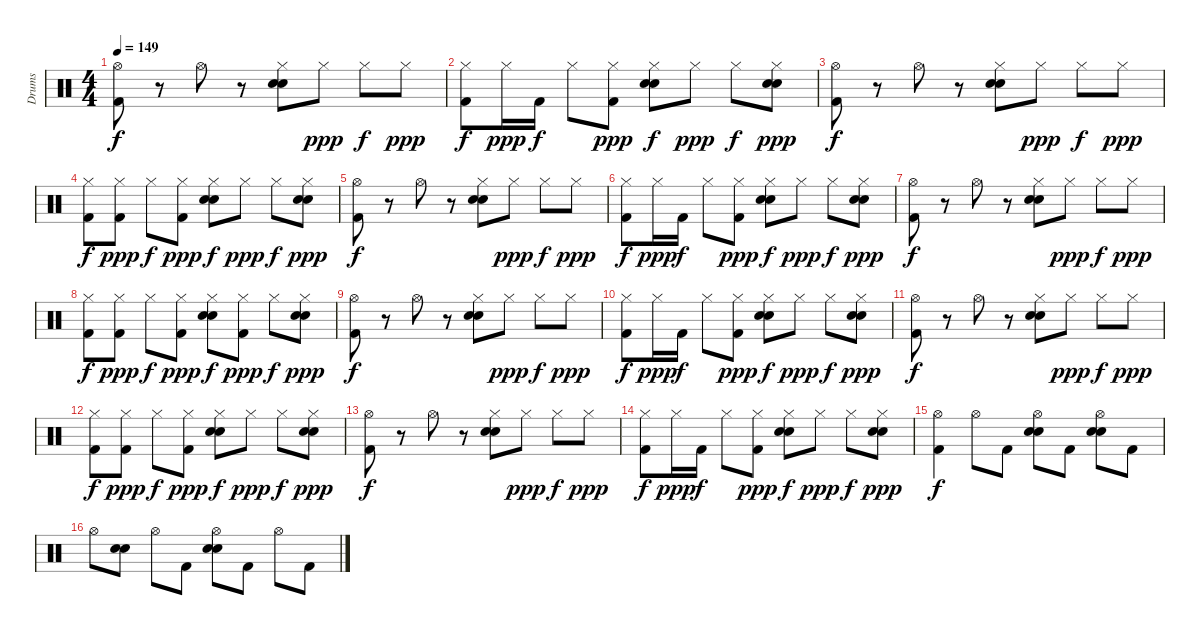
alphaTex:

\track ("Drums" "Drums") {instrument percussion}
\staff {score}
\articulation defaults
\ts (4 4)
\tempo 149
\clef neutral
\ks c
("Kick (hit) 2" "Hi-Hat (open)").8{dy f} r.8 "Hi-Hat (open)".8 r.8 ("Electric Snare (hit)" "Snare (hit) 2" "Hi-Hat (closed)").8 "Hi-Hat (closed)".8{dy ppp} "Hi-Hat (closed)".8{dy f} "Hi-Hat (closed)".8{dy ppp} |
("Kick (hit) 2" "Hi-Hat (closed)").8{dy f} "Hi-Hat (closed)".16{dy ppp} "Kick (hit) 2".16{dy f} "Hi-Hat (closed)".8 ("Kick (hit) 2" "Hi-Hat (closed)").8{dy ppp} ("Electric Snare (hit)" "Snare (hit) 2" "Hi-Hat (closed)").8{dy f} "Hi-Hat (closed)".8{dy ppp} "Hi-Hat (closed)".8{dy f} ("Electric Snare (hit)" "Snare (hit) 2" "Hi-Hat (closed)").8{dy ppp} |
("Kick (hit) 2" "Hi-Hat (open)").8{dy f} r.8 "Hi-Hat (open)".8 r.8 ("Electric Snare (hit)" "Snare (hit) 2" "Hi-Hat (closed)").8 "Hi-Hat (closed)".8{dy ppp} "Hi-Hat (closed)".8{dy f} "Hi-Hat (closed)".8{dy ppp} |
("Kick (hit) 2" "Hi-Hat (closed)").8{dy f} ("Kick (hit) 2" "Hi-Hat (closed)").8{dy ppp} "Hi-Hat (closed)".8{dy f} ("Kick (hit) 2" "Hi-Hat (closed)").8{dy ppp} ("Electric Snare (hit)" "Snare (hit) 2" "Hi-Hat (closed)").8{dy f} "Hi-Hat (closed)".8{dy ppp} "Hi-Hat (closed)".8{dy f} ("Electric Snare (hit)" "Snare (hit) 2" "Hi-Hat (closed)").8{dy ppp} |
("Kick (hit) 2" "Hi-Hat (open)").8{dy f} r.8 "Hi-Hat (open)".8 r.8 ("Electric Snare (hit)" "Snare (hit) 2" "Hi-Hat (closed)").8 "Hi-Hat (closed)".8{dy ppp} "Hi-Hat (closed)".8{dy f} "Hi-Hat (closed)".8{dy ppp} |
("Kick (hit) 2" "Hi-Hat (closed)").8{dy f} "Hi-Hat (closed)".16{dy ppp} "Kick (hit) 2".16{dy f} "Hi-Hat (closed)".8 ("Kick (hit) 2" "Hi-Hat (closed)").8{dy ppp} ("Electric Snare (hit)" "Snare (hit) 2" "Hi-Hat (closed)").8{dy f} "Hi-Hat (closed)".8{dy ppp} "Hi-Hat (closed)".8{dy f} ("Electric Snare (hit)" "Snare (hit) 2" "Hi-Hat (closed)").8{dy ppp} |
("Kick (hit) 2" "Hi-Hat (open)").8{dy f} r.8 "Hi-Hat (open)".8 r.8 ("Electric Snare (hit)" "Snare (hit) 2" "Hi-Hat (closed)").8 "Hi-Hat (closed)".8{dy ppp} "Hi-Hat (closed)".8{dy f} "Hi-Hat (closed)".8{dy ppp} |
("Kick (hit) 2" "Hi-Hat (closed)").8{dy f} ("Kick (hit) 2" "Hi-Hat (closed)").8{dy ppp} "Hi-Hat (closed)".8{dy f} ("Kick (hit) 2" "Hi-Hat (closed)").8{dy ppp} ("Electric Snare (hit)" "Snare (hit) 2" "Hi-Hat (closed)").8{dy f} ("Kick (hit) 2" "Hi-Hat (closed)").8{dy ppp} "Hi-Hat (closed)".8{dy f} ("Electric Snare (hit)" "Snare (hit) 2" "Hi-Hat (closed)").8{dy ppp} |
("Kick (hit) 2" "Hi-Hat (open)").8{dy f} r.8 "Hi-Hat (open)".8 r.8 ("Electric Snare (hit)" "Snare (hit) 2" "Hi-Hat (closed)").8 "Hi-Hat (closed)".8{dy ppp} "Hi-Hat (closed)".8{dy f} "Hi-Hat (closed)".8{dy ppp} |
("Kick (hit) 2" "Hi-Hat (closed)").8{dy f} "Hi-Hat (closed)".16{dy ppp} "Kick (hit) 2".16{dy f} "Hi-Hat (closed)".8 ("Kick (hit) 2" "Hi-Hat (closed)").8{dy ppp} ("Electric Snare (hit)" "Snare (hit) 2" "Hi-Hat (closed)").8{dy f} "Hi-Hat (closed)".8{dy ppp} "Hi-Hat (closed)".8{dy f} ("Electric Snare (hit)" "Snare (hit) 2" "Hi-Hat (closed)").8{dy ppp} |
("Kick (hit) 2" "Hi-Hat (open)").8{dy f} r.8 "Hi-Hat (open)".8 r.8 ("Electric Snare (hit)" "Snare (hit) 2" "Hi-Hat (closed)").8 "Hi-Hat (closed)".8{dy ppp} "Hi-Hat (closed)".8{dy f} "Hi-Hat (closed)".8{dy ppp} |
("Kick (hit) 2" "Hi-Hat (closed)").8{dy f} ("Kick (hit) 2" "Hi-Hat (closed)").8{dy ppp} "Hi-Hat (closed)".8{dy f} ("Kick (hit) 2" "Hi-Hat (closed)").8{dy ppp} ("Electric Snare (hit)" "Snare (hit) 2" "Hi-Hat (closed)").8{dy f} "Hi-Hat (closed)".8{dy ppp} "Hi-Hat (closed)".8{dy f} ("Electric Snare (hit)" "Snare (hit) 2" "Hi-Hat (closed)").8{dy ppp} |
("Kick (hit) 2" "Hi-Hat (open)").8{dy f} r.8 "Hi-Hat (open)".8 r.8 ("Electric Snare (hit)" "Snare (hit) 2" "Hi-Hat (closed)").8 "Hi-Hat (closed)".8{dy ppp} "Hi-Hat (closed)".8{dy f} "Hi-Hat (closed)".8{dy ppp} |
("Kick (hit) 2" "Hi-Hat (closed)").8{dy f} "Hi-Hat (closed)".16{dy ppp} "Kick (hit) 2".16{dy f} "Hi-Hat (closed)".8 ("Kick (hit) 2" "Hi-Hat (closed)").8{dy ppp} ("Electric Snare (hit)" "Snare (hit) 2" "Hi-Hat (closed)").8{dy f} "Hi-Hat (closed)".8{dy ppp} "Hi-Hat (closed)".8{dy f} ("Electric Snare (hit)" "Snare (hit) 2" "Hi-Hat (closed)").8{dy ppp} |
("Kick (hit) 2" "Hi-Hat (open)").4{dy f} "Hi-Hat (open)".8 "Kick (hit) 2".8 ("Electric Snare (hit)" "Snare (hit) 2" "Hi-Hat (open)").8 "Kick (hit) 2".8 ("Electric Snare (hit)" "Snare (hit) 2" "Hi-Hat (open)").8 "Kick (hit) 2".8 |
"Hi-Hat (open)".8 ("Electric Snare (hit)" "Snare (hit) 2").8 "Hi-Hat (open)".8 "Kick (hit) 2".8 ("Electric Snare (hit)" "Snare (hit) 2" "Hi-Hat (open)").8 "Kick (hit) 2".8 "Hi-Hat (open)".8 "Kick (hit) 2".8
